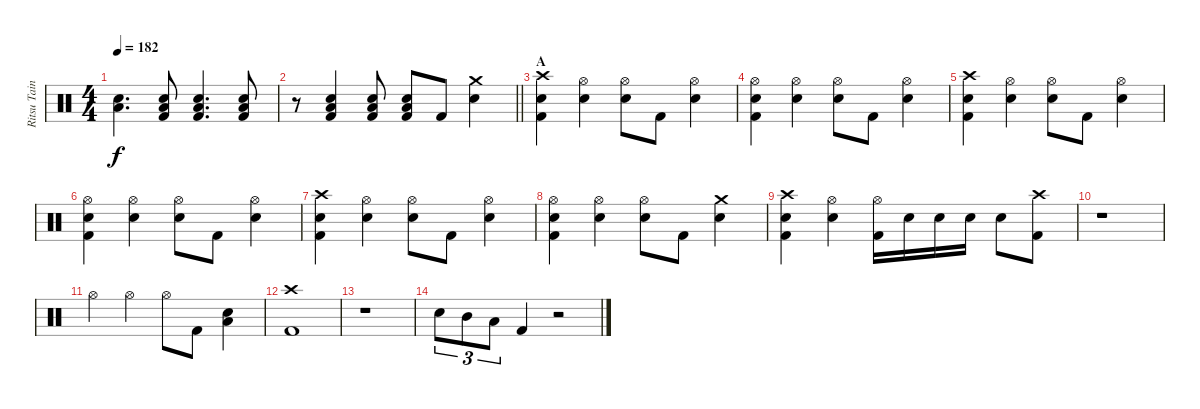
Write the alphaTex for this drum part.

\track ("Ritsu Tainaka" "Ritsu Tain") {instrument percussion}
\staff {score}
\articulation defaults
\ts (4 4)
\tempo 182
\clef neutral
\ks c
("Electric Snare (hit)" "Low Floor Tom (hit)").4{d dy f} ("Electric Snare (hit)" "Low Floor Tom (hit)" "Kick (hit) 2").8 ("Electric Snare (hit)" "Low Floor Tom (hit)" "Kick (hit) 2").4{d} ("Electric Snare (hit)" "Low Floor Tom (hit)" "Kick (hit) 2").8 |
\barLineRight lightlight
r.8 ("Electric Snare (hit)" "Low Floor Tom (hit)" "Kick (hit) 2").4 ("Electric Snare (hit)" "Low Floor Tom (hit)" "Kick (hit) 2").8 ("Electric Snare (hit)" "Low Floor Tom (hit)" "Kick (hit) 2").8 "Kick (hit) 2".8 ("Crash medium (hit)" "Electric Snare (hit)").4 |
\section ("" "A")
("Crash high (hit)" "Electric Snare (hit)" "Kick (hit) 2").4 ("Hi-Hat (open)" "Electric Snare (hit)").4 ("Hi-Hat (open)" "Electric Snare (hit)").8 "Kick (hit) 2".8 ("Hi-Hat (open)" "Electric Snare (hit)").4 |
("Hi-Hat (open)" "Electric Snare (hit)" "Kick (hit) 2").4 ("Hi-Hat (open)" "Electric Snare (hit)").4 ("Hi-Hat (open)" "Electric Snare (hit)").8 "Kick (hit) 2".8 ("Hi-Hat (open)" "Electric Snare (hit)").4 |
("Crash high (hit)" "Electric Snare (hit)" "Kick (hit) 2").4 ("Hi-Hat (open)" "Electric Snare (hit)").4 ("Hi-Hat (open)" "Electric Snare (hit)").8 "Kick (hit) 2".8 ("Hi-Hat (open)" "Electric Snare (hit)").4 |
("Hi-Hat (open)" "Electric Snare (hit)" "Kick (hit) 2").4 ("Hi-Hat (open)" "Electric Snare (hit)").4 ("Hi-Hat (open)" "Electric Snare (hit)").8 "Kick (hit) 2".8 ("Hi-Hat (open)" "Electric Snare (hit)").4 |
("Crash high (hit)" "Electric Snare (hit)" "Kick (hit) 2").4 ("Hi-Hat (open)" "Electric Snare (hit)").4 ("Hi-Hat (open)" "Electric Snare (hit)").8 "Kick (hit) 2".8 ("Hi-Hat (open)" "Electric Snare (hit)").4 |
("Hi-Hat (open)" "Electric Snare (hit)" "Kick (hit) 2").4 ("Hi-Hat (open)" "Electric Snare (hit)").4 ("Hi-Hat (open)" "Electric Snare (hit)").8 "Kick (hit) 2".8 ("Crash medium (hit)" "Electric Snare (hit)").4 |
("Crash high (hit)" "Electric Snare (hit)" "Kick (hit) 2").4 ("Hi-Hat (open)" "Electric Snare (hit)").4 ("Hi-Hat (open)" "Kick (hit) 2").16 "Electric Snare (hit)".16 "Electric Snare (hit)".16 "Electric Snare (hit)".16 "Electric Snare (hit)".8 ("Crash high (hit)" "Kick (hit) 2").8 |
r.1 |
"Hi-Hat (open)".4 "Hi-Hat (open)".4 "Hi-Hat (open)".8 "Kick (hit) 2".8 ("Electric Snare (hit)" "Low Floor Tom (hit)").4 |
("Crash high (hit)" "Kick (hit) 2").1 |
r.1 |
"Electric Snare (hit)".8{tu (3 2)} "Mid Tom (hit)".8{tu (3 2)} "Low Floor Tom (hit)".8{tu (3 2)} "Kick (hit) 2".4 r.2
